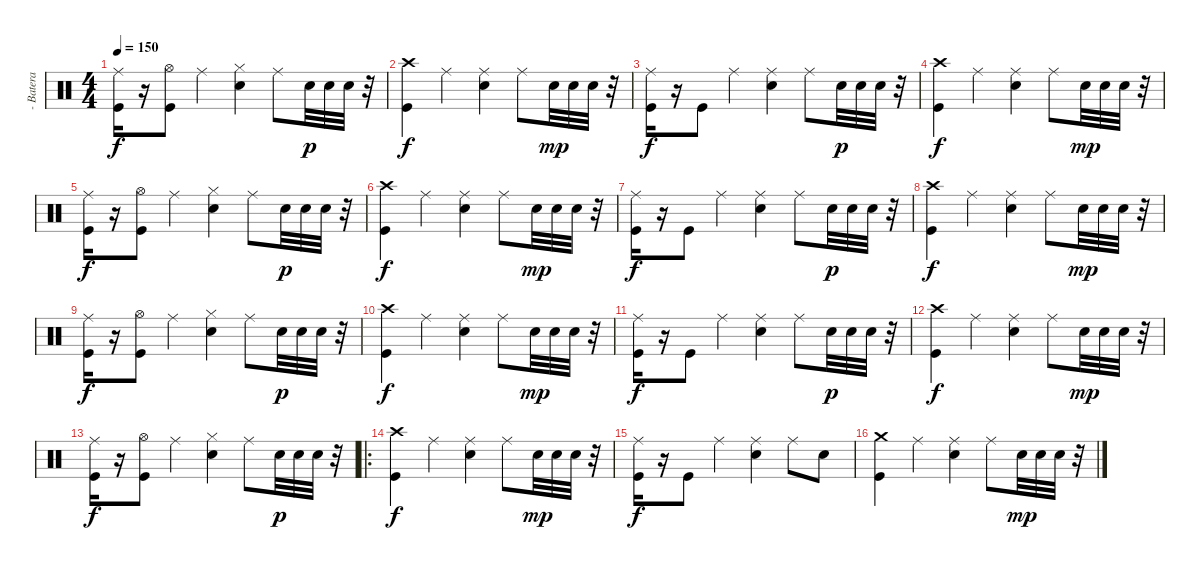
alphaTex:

\track ("- Batera" "- Batera") {instrument percussion}
\staff {score}
\articulation defaults
\ts (4 4)
\tempo 150
\clef neutral
\ks c
("Ride (middle)" "Kick (hit)").16{dy f} r.16 ("Hi-Hat (open)" "Kick (hit)").8 "Ride (middle)".4 ("Hi-Hat (closed)" "Snare (hit) 2").4 "Ride (middle)".8 "Snare (hit) 2".32{dy p} "Snare (hit) 2".32 "Snare (hit) 2".32 r.32 |
("Crash high (hit)" "Kick (hit)").4{dy f} "Ride (middle)".4 ("Ride (middle)" "Snare (hit) 2").4 "Ride (middle)".8 "Snare (hit) 2".32{dy mp} "Snare (hit) 2".32 "Snare (hit) 2".32 r.32 |
("Ride (middle)" "Kick (hit)").16{dy f} r.16 "Kick (hit)".8 "Ride (middle)".4 ("Ride (middle)" "Snare (hit) 2").4 "Ride (middle)".8 "Snare (hit) 2".32{dy p} "Snare (hit) 2".32 "Snare (hit) 2".32 r.32 |
("Crash high (hit)" "Kick (hit)").4{dy f} "Ride (middle)".4 ("Ride (middle)" "Snare (hit) 2").4 "Ride (middle)".8 "Snare (hit) 2".32{dy mp} "Snare (hit) 2".32 "Snare (hit) 2".32 r.32 |
("Ride (middle)" "Kick (hit)").16{dy f} r.16 ("Hi-Hat (open)" "Kick (hit)").8 "Ride (middle)".4 ("Hi-Hat (closed)" "Snare (hit) 2").4 "Ride (middle)".8 "Snare (hit) 2".32{dy p} "Snare (hit) 2".32 "Snare (hit) 2".32 r.32 |
("Crash high (hit)" "Kick (hit)").4{dy f} "Ride (middle)".4 ("Ride (middle)" "Snare (hit) 2").4 "Ride (middle)".8 "Snare (hit) 2".32{dy mp} "Snare (hit) 2".32 "Snare (hit) 2".32 r.32 |
("Ride (middle)" "Kick (hit)").16{dy f} r.16 "Kick (hit)".8 "Ride (middle)".4 ("Ride (middle)" "Snare (hit) 2").4 "Ride (middle)".8 "Snare (hit) 2".32{dy p} "Snare (hit) 2".32 "Snare (hit) 2".32 r.32 |
("Crash high (hit)" "Kick (hit)").4{dy f} "Ride (middle)".4 ("Ride (middle)" "Snare (hit) 2").4 "Ride (middle)".8 "Snare (hit) 2".32{dy mp} "Snare (hit) 2".32 "Snare (hit) 2".32 r.32 |
("Ride (middle)" "Kick (hit)").16{dy f} r.16 ("Hi-Hat (open)" "Kick (hit)").8 "Ride (middle)".4 ("Hi-Hat (closed)" "Snare (hit) 2").4 "Ride (middle)".8 "Snare (hit) 2".32{dy p} "Snare (hit) 2".32 "Snare (hit) 2".32 r.32 |
("Crash high (hit)" "Kick (hit)").4{dy f} "Ride (middle)".4 ("Ride (middle)" "Snare (hit) 2").4 "Ride (middle)".8 "Snare (hit) 2".32{dy mp} "Snare (hit) 2".32 "Snare (hit) 2".32 r.32 |
("Ride (middle)" "Kick (hit)").16{dy f} r.16 "Kick (hit)".8 "Ride (middle)".4 ("Ride (middle)" "Snare (hit) 2").4 "Ride (middle)".8 "Snare (hit) 2".32{dy p} "Snare (hit) 2".32 "Snare (hit) 2".32 r.32 |
("Crash high (hit)" "Kick (hit)").4{dy f} "Ride (middle)".4 ("Ride (middle)" "Snare (hit) 2").4 "Ride (middle)".8 "Snare (hit) 2".32{dy mp} "Snare (hit) 2".32 "Snare (hit) 2".32 r.32 |
("Ride (middle)" "Kick (hit)").16{dy f} r.16 ("Hi-Hat (open)" "Kick (hit)").8 "Ride (middle)".4 ("Hi-Hat (closed)" "Snare (hit) 2").4 "Ride (middle)".8 "Snare (hit) 2".32{dy p} "Snare (hit) 2".32 "Snare (hit) 2".32 r.32 |
\ro
("Crash high (hit)" "Kick (hit)").4{dy f} "Ride (middle)".4 ("Ride (middle)" "Snare (hit) 2").4 "Ride (middle)".8 "Snare (hit) 2".32{dy mp} "Snare (hit) 2".32 "Snare (hit) 2".32 r.32 |
("Ride (middle)" "Kick (hit)").16{dy f} r.16 "Kick (hit)".8 "Ride (middle)".4 ("Ride (middle)" "Snare (hit) 2").4 "Ride (middle)".8 "Snare (hit) 2".8 |
("Crash medium (hit)" "Kick (hit)").4 "Ride (middle)".4 ("Ride (middle)" "Snare (hit) 2").4 "Ride (middle)".8 "Snare (hit) 2".32{dy mp} "Snare (hit) 2".32 "Snare (hit) 2".32 r.32
